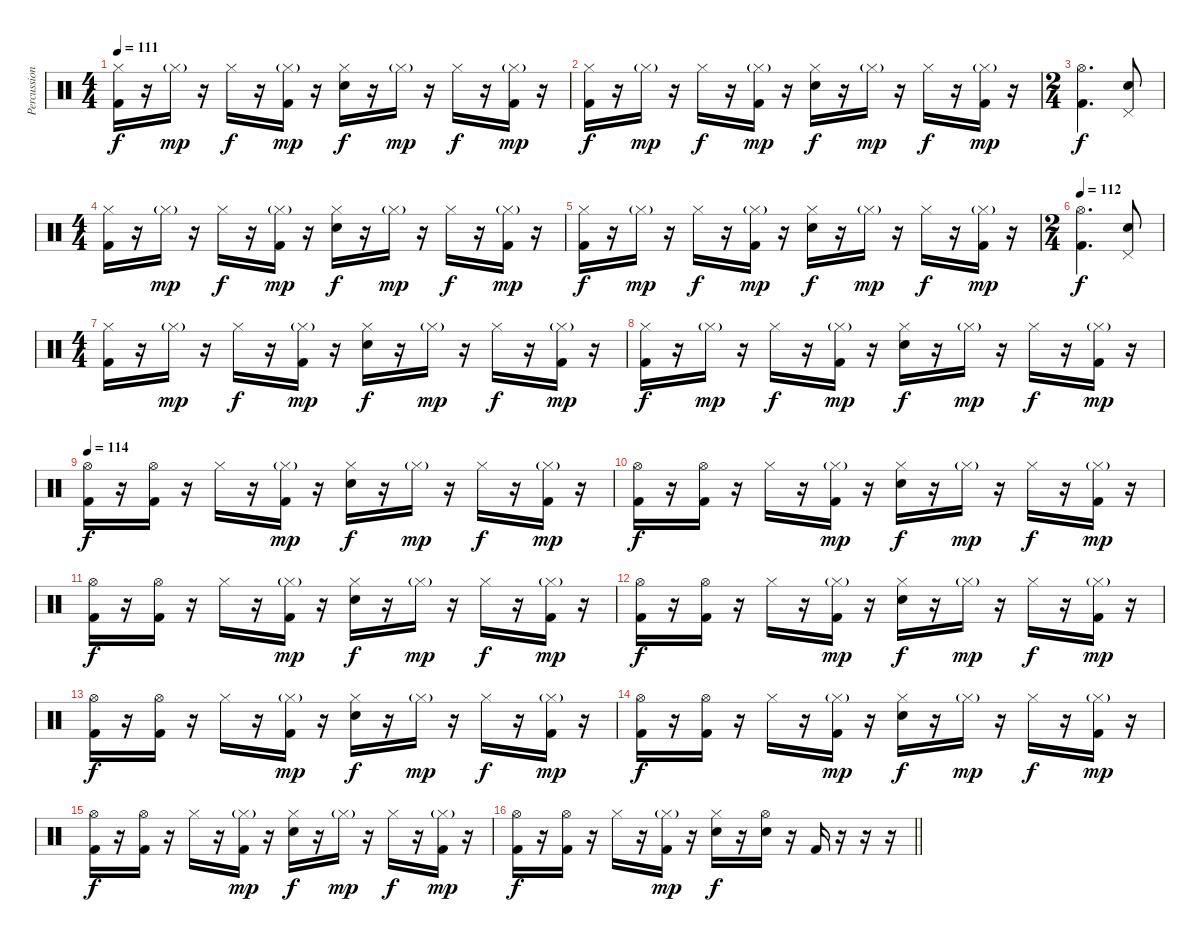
\track ("Percussion" "Percussion") {instrument percussion}
\staff {score}
\articulation defaults
\ts (4 4)
\tempo 111
\clef neutral
\ks c
("Hi-Hat (closed)" "Kick (hit) 2").16{dy f} r.16 "Hi-Hat (closed)"{g}.16{dy mp} r.16 "Hi-Hat (closed)".16{dy f} r.16 ("Hi-Hat (closed)"{g} "Kick (hit) 2").16{dy mp} r.16 ("Hi-Hat (closed)" "Electric Snare (hit)").16{dy f} r.16 "Hi-Hat (closed)"{g}.16{dy mp} r.16 "Hi-Hat (closed)".16{dy f} r.16 ("Hi-Hat (closed)"{g} "Kick (hit) 2").16{dy mp} r.16 |
("Hi-Hat (closed)" "Kick (hit) 2").16{dy f} r.16 "Hi-Hat (closed)"{g}.16{dy mp} r.16 "Hi-Hat (closed)".16{dy f} r.16 ("Hi-Hat (closed)"{g} "Kick (hit) 2").16{dy mp} r.16 ("Hi-Hat (closed)" "Electric Snare (hit)").16{dy f} r.16 "Hi-Hat (closed)"{g}.16{dy mp} r.16 "Hi-Hat (closed)".16{dy f} r.16 ("Hi-Hat (closed)"{g} "Kick (hit) 2").16{dy mp} r.16 |
\ts (2 4)
("Hi-Hat (open)" "Kick (hit) 2").4{d dy f} ("Pedal Hi-Hat (hit)" "Electric Snare (hit)").8 |
\ts (4 4)
("Hi-Hat (closed)" "Kick (hit) 2").16 r.16 "Hi-Hat (closed)"{g}.16{dy mp} r.16 "Hi-Hat (closed)".16{dy f} r.16 ("Hi-Hat (closed)"{g} "Kick (hit) 2").16{dy mp} r.16 ("Hi-Hat (closed)" "Electric Snare (hit)").16{dy f} r.16 "Hi-Hat (closed)"{g}.16{dy mp} r.16 "Hi-Hat (closed)".16{dy f} r.16 ("Hi-Hat (closed)"{g} "Kick (hit) 2").16{dy mp} r.16 |
("Hi-Hat (closed)" "Kick (hit) 2").16{dy f} r.16 "Hi-Hat (closed)"{g}.16{dy mp} r.16 "Hi-Hat (closed)".16{dy f} r.16 ("Hi-Hat (closed)"{g} "Kick (hit) 2").16{dy mp} r.16 ("Hi-Hat (closed)" "Electric Snare (hit)").16{dy f} r.16 "Hi-Hat (closed)"{g}.16{dy mp} r.16 "Hi-Hat (closed)".16{dy f} r.16 ("Hi-Hat (closed)"{g} "Kick (hit) 2").16{dy mp} r.16 |
\ts (2 4)
\tempo 112
("Hi-Hat (open)" "Kick (hit) 2").4{d dy f} ("Pedal Hi-Hat (hit)" "Electric Snare (hit)").8 |
\ts (4 4)
("Hi-Hat (closed)" "Kick (hit) 2").16 r.16 "Hi-Hat (closed)"{g}.16{dy mp} r.16 "Hi-Hat (closed)".16{dy f} r.16 ("Hi-Hat (closed)"{g} "Kick (hit) 2").16{dy mp} r.16 ("Hi-Hat (closed)" "Electric Snare (hit)").16{dy f} r.16 "Hi-Hat (closed)"{g}.16{dy mp} r.16 "Hi-Hat (closed)".16{dy f} r.16 ("Hi-Hat (closed)"{g} "Kick (hit) 2").16{dy mp} r.16 |
("Hi-Hat (closed)" "Kick (hit) 2").16{dy f} r.16 "Hi-Hat (closed)"{g}.16{dy mp} r.16 "Hi-Hat (closed)".16{dy f} r.16 ("Hi-Hat (closed)"{g} "Kick (hit) 2").16{dy mp} r.16 ("Hi-Hat (closed)" "Electric Snare (hit)").16{dy f} r.16 "Hi-Hat (closed)"{g}.16{dy mp} r.16 "Hi-Hat (closed)".16{dy f} r.16 ("Hi-Hat (closed)"{g} "Kick (hit) 2").16{dy mp} r.16 |
\tempo 114
("Hi-Hat (open)" "Kick (hit) 2").16{dy f} r.16 ("Hi-Hat (open)" "Kick (hit) 2").16 r.16 "Hi-Hat (closed)".16 r.16 ("Hi-Hat (closed)"{g} "Kick (hit) 2").16{dy mp} r.16 ("Hi-Hat (closed)" "Electric Snare (hit)").16{dy f} r.16 "Hi-Hat (closed)"{g}.16{dy mp} r.16 "Hi-Hat (closed)".16{dy f} r.16 ("Hi-Hat (closed)"{g} "Kick (hit) 2").16{dy mp} r.16 |
("Hi-Hat (open)" "Kick (hit) 2").16{dy f} r.16 ("Hi-Hat (open)" "Kick (hit) 2").16 r.16 "Hi-Hat (closed)".16 r.16 ("Hi-Hat (closed)"{g} "Kick (hit) 2").16{dy mp} r.16 ("Hi-Hat (closed)" "Electric Snare (hit)").16{dy f} r.16 "Hi-Hat (closed)"{g}.16{dy mp} r.16 "Hi-Hat (closed)".16{dy f} r.16 ("Hi-Hat (closed)"{g} "Kick (hit) 2").16{dy mp} r.16 |
("Hi-Hat (open)" "Kick (hit) 2").16{dy f} r.16 ("Hi-Hat (open)" "Kick (hit) 2").16 r.16 "Hi-Hat (closed)".16 r.16 ("Hi-Hat (closed)"{g} "Kick (hit) 2").16{dy mp} r.16 ("Hi-Hat (closed)" "Electric Snare (hit)").16{dy f} r.16 "Hi-Hat (closed)"{g}.16{dy mp} r.16 "Hi-Hat (closed)".16{dy f} r.16 ("Hi-Hat (closed)"{g} "Kick (hit) 2").16{dy mp} r.16 |
("Hi-Hat (open)" "Kick (hit) 2").16{dy f} r.16 ("Hi-Hat (open)" "Kick (hit) 2").16 r.16 "Hi-Hat (closed)".16 r.16 ("Hi-Hat (closed)"{g} "Kick (hit) 2").16{dy mp} r.16 ("Hi-Hat (closed)" "Electric Snare (hit)").16{dy f} r.16 "Hi-Hat (closed)"{g}.16{dy mp} r.16 "Hi-Hat (closed)".16{dy f} r.16 ("Hi-Hat (closed)"{g} "Kick (hit) 2").16{dy mp} r.16 |
("Hi-Hat (open)" "Kick (hit) 2").16{dy f} r.16 ("Hi-Hat (open)" "Kick (hit) 2").16 r.16 "Hi-Hat (closed)".16 r.16 ("Hi-Hat (closed)"{g} "Kick (hit) 2").16{dy mp} r.16 ("Hi-Hat (closed)" "Electric Snare (hit)").16{dy f} r.16 "Hi-Hat (closed)"{g}.16{dy mp} r.16 "Hi-Hat (closed)".16{dy f} r.16 ("Hi-Hat (closed)"{g} "Kick (hit) 2").16{dy mp} r.16 |
("Hi-Hat (open)" "Kick (hit) 2").16{dy f} r.16 ("Hi-Hat (open)" "Kick (hit) 2").16 r.16 "Hi-Hat (closed)".16 r.16 ("Hi-Hat (closed)"{g} "Kick (hit) 2").16{dy mp} r.16 ("Hi-Hat (closed)" "Electric Snare (hit)").16{dy f} r.16 "Hi-Hat (closed)"{g}.16{dy mp} r.16 "Hi-Hat (closed)".16{dy f} r.16 ("Hi-Hat (closed)"{g} "Kick (hit) 2").16{dy mp} r.16 |
("Hi-Hat (open)" "Kick (hit) 2").16{dy f} r.16 ("Hi-Hat (open)" "Kick (hit) 2").16 r.16 "Hi-Hat (closed)".16 r.16 ("Hi-Hat (closed)"{g} "Kick (hit) 2").16{dy mp} r.16 ("Hi-Hat (closed)" "Electric Snare (hit)").16{dy f} r.16 "Hi-Hat (closed)"{g}.16{dy mp} r.16 "Hi-Hat (closed)".16{dy f} r.16 ("Hi-Hat (closed)"{g} "Kick (hit) 2").16{dy mp} r.16 |
\barLineRight lightlight
("Hi-Hat (open)" "Kick (hit) 2").16{dy f} r.16 ("Hi-Hat (open)" "Kick (hit) 2").16 r.16 "Hi-Hat (closed)".16 r.16 ("Hi-Hat (closed)"{g} "Kick (hit) 2").16{dy mp} r.16 ("Hi-Hat (closed)" "Electric Snare (hit)").16{dy f} r.16 ("Hi-Hat (open)" "Electric Snare (hit)").16 r.16 "Kick (hit) 2".16 r.16 r.16 r.16
